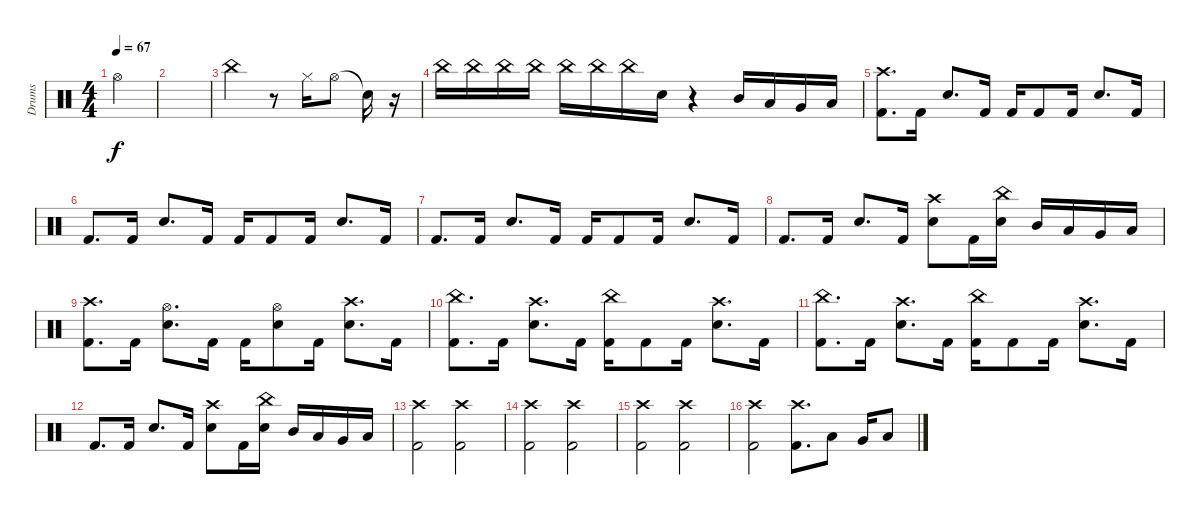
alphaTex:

\track ("Drums" "Drums") {instrument percussion}
\staff {score}
\articulation defaults
\ts (4 4)
\tempo 67
\clef neutral
\ks c "Hi-Hat (open)".4{dy f}
|
|
"China (hit)".4 r.8 "Hi-Hat (closed)".16 "Hi-Hat (open)".8 "Snare (hit)"{t}.16 r.16 |
"China (hit)".16{volume 12} "China (hit)".16 "China (hit)".16 "China (hit)".16 "China (hit)".16 "China (hit)".16 "China (hit)".16 "Snare (hit)".16 r.4 "Mid Tom (hit)".16 "Low Tom (hit)".16 "Very Low Tom (hit)".16 "Low Floor Tom (hit)".16 |
("Crash high (hit)" "Kick (hit) 2").8{d} "Kick (hit) 2".16 "Electric Snare (hit)".8{d} "Kick (hit) 2".16 "Kick (hit) 2".16 "Kick (hit) 2".8 "Kick (hit) 2".16 "Electric Snare (hit)".8{d} "Kick (hit) 2".16 |
"Kick (hit) 2".8{d} "Kick (hit) 2".16 "Electric Snare (hit)".8{d} "Kick (hit) 2".16 "Kick (hit) 2".16 "Kick (hit) 2".8 "Kick (hit) 2".16 "Electric Snare (hit)".8{d} "Kick (hit) 2".16 |
"Kick (hit) 2".8{d} "Kick (hit) 2".16 "Electric Snare (hit)".8{d} "Kick (hit) 2".16 "Kick (hit) 2".16 "Kick (hit) 2".8 "Kick (hit) 2".16 "Electric Snare (hit)".8{d} "Kick (hit) 2".16 |
"Kick (hit) 2".8{d} "Kick (hit) 2".16 "Electric Snare (hit)".8{d} "Kick (hit) 2".16 ("Crash high (hit)" "Electric Snare (hit)").8 "Kick (hit) 2".16 ("China (hit)" "Electric Snare (hit)").16 "Mid Tom (hit)".16 "Low Tom (hit)".16 "Very Low Tom (hit)".16 "Low Floor Tom (hit)".16 |
("Crash high (hit)" "Kick (hit) 2").8{d} "Kick (hit) 2".16 ("Hi-Hat (open)" "Electric Snare (hit)").8{d} "Kick (hit) 2".16 "Kick (hit) 2".16 ("Hi-Hat (open)" "Electric Snare (hit)").8 "Kick (hit) 2".16 ("Crash high (hit)" "Electric Snare (hit)").8{d} "Kick (hit) 2".16 |
("China (hit)" "Kick (hit) 2").8{d} "Kick (hit) 2".16 ("Crash high (hit)" "Electric Snare (hit)").8{d} "Kick (hit) 2".16 ("China (hit)" "Kick (hit) 2").16 "Kick (hit) 2".8 "Kick (hit) 2".16 ("Crash high (hit)" "Electric Snare (hit)").8{d} "Kick (hit) 2".16 |
("China (hit)" "Kick (hit) 2").8{d} "Kick (hit) 2".16 ("Crash high (hit)" "Electric Snare (hit)").8{d} "Kick (hit) 2".16 ("China (hit)" "Kick (hit) 2").16 "Kick (hit) 2".8 "Kick (hit) 2".16 ("Crash high (hit)" "Electric Snare (hit)").8{d} "Kick (hit) 2".16 |
"Kick (hit) 2".8{d} "Kick (hit) 2".16 "Electric Snare (hit)".8{d} "Kick (hit) 2".16 ("Crash high (hit)" "Electric Snare (hit)").8 "Kick (hit) 2".16 ("China (hit)" "Electric Snare (hit)").16 "Mid Tom (hit)".16 "Low Tom (hit)".16 "Very Low Tom (hit)".16 "Low Floor Tom (hit)".16 |
("Crash high (hit)" "Kick (hit) 2").2 ("Crash high (hit)" "Kick (hit) 2").2 |
("Crash high (hit)" "Kick (hit) 2").2 ("Crash high (hit)" "Kick (hit) 2").2 |
("Crash high (hit)" "Kick (hit) 2").2 ("Crash high (hit)" "Kick (hit) 2").2 |
("Crash high (hit)" "Kick (hit) 2").2 ("Crash high (hit)" "Kick (hit) 2").8{d} "Low Tom (hit)".8 "Very Low Tom (hit)".16 "Low Floor Tom (hit)".8
